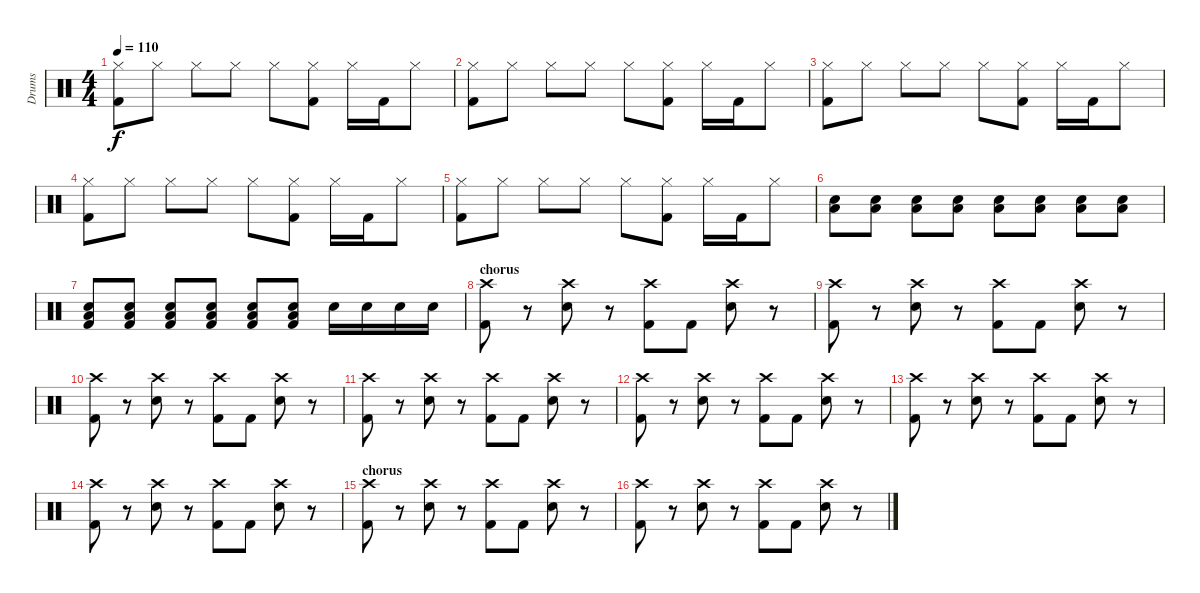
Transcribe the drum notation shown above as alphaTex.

\track ("Drums" "Drums") {instrument percussion}
\staff {score}
\articulation defaults
\ts (4 4)
\tempo 110
\clef neutral
\ks c
("Hi-Hat (closed)" "Kick (hit) 2").8{dy f} "Hi-Hat (closed)".8 "Hi-Hat (closed)".8 "Hi-Hat (closed)".8 "Hi-Hat (closed)".8 ("Hi-Hat (closed)" "Kick (hit) 2").8 "Hi-Hat (closed)".16 "Kick (hit) 2".16 "Hi-Hat (closed)".8 |
("Hi-Hat (closed)" "Kick (hit) 2").8 "Hi-Hat (closed)".8 "Hi-Hat (closed)".8 "Hi-Hat (closed)".8 "Hi-Hat (closed)".8 ("Hi-Hat (closed)" "Kick (hit) 2").8 "Hi-Hat (closed)".16 "Kick (hit) 2".16 "Hi-Hat (closed)".8 |
("Hi-Hat (closed)" "Kick (hit) 2").8 "Hi-Hat (closed)".8 "Hi-Hat (closed)".8 "Hi-Hat (closed)".8 "Hi-Hat (closed)".8 ("Hi-Hat (closed)" "Kick (hit) 2").8 "Hi-Hat (closed)".16 "Kick (hit) 2".16 "Hi-Hat (closed)".8 |
("Hi-Hat (closed)" "Kick (hit) 2").8 "Hi-Hat (closed)".8 "Hi-Hat (closed)".8 "Hi-Hat (closed)".8 "Hi-Hat (closed)".8 ("Hi-Hat (closed)" "Kick (hit) 2").8 "Hi-Hat (closed)".16 "Kick (hit) 2".16 "Hi-Hat (closed)".8 |
("Hi-Hat (closed)" "Kick (hit) 2").8 "Hi-Hat (closed)".8 "Hi-Hat (closed)".8 "Hi-Hat (closed)".8 "Hi-Hat (closed)".8 ("Hi-Hat (closed)" "Kick (hit) 2").8 "Hi-Hat (closed)".16 "Kick (hit) 2".16 "Hi-Hat (closed)".8 |
("Snare (hit) 2" "Low Tom (hit)").8 ("Snare (hit) 2" "Low Tom (hit)").8 ("Snare (hit) 2" "Low Tom (hit)").8 ("Snare (hit) 2" "Low Tom (hit)").8 ("Snare (hit) 2" "Low Tom (hit)").8 ("Snare (hit) 2" "Low Tom (hit)").8 ("Snare (hit) 2" "Low Tom (hit)").8 ("Snare (hit) 2" "Low Tom (hit)").8 |
("Snare (hit) 2" "Low Tom (hit)" "Kick (hit) 2").8 ("Snare (hit) 2" "Low Tom (hit)" "Kick (hit) 2").8 ("Snare (hit) 2" "Low Tom (hit)" "Kick (hit) 2").8 ("Snare (hit) 2" "Low Tom (hit)" "Kick (hit) 2").8 ("Snare (hit) 2" "Low Tom (hit)" "Kick (hit) 2").8 ("Snare (hit) 2" "Low Tom (hit)" "Kick (hit) 2").8 "Snare (hit) 2".16 "Snare (hit) 2".16 "Snare (hit) 2".16 "Snare (hit) 2".16 |
\section ("" "chorus")
("Crash high (hit)" "Kick (hit) 2").8 r.8 ("Crash high (hit)" "Snare (hit) 2").8 r.8 ("Crash high (hit)" "Kick (hit) 2").8 "Kick (hit) 2".8 ("Crash high (hit)" "Snare (hit) 2").8 r.8 |
("Crash high (hit)" "Kick (hit) 2").8 r.8 ("Crash high (hit)" "Snare (hit) 2").8 r.8 ("Crash high (hit)" "Kick (hit) 2").8 "Kick (hit) 2".8 ("Crash high (hit)" "Snare (hit) 2").8 r.8 |
("Crash high (hit)" "Kick (hit) 2").8 r.8 ("Crash high (hit)" "Snare (hit) 2").8 r.8 ("Crash high (hit)" "Kick (hit) 2").8 "Kick (hit) 2".8 ("Crash high (hit)" "Snare (hit) 2").8 r.8 |
("Crash high (hit)" "Kick (hit) 2").8 r.8 ("Crash high (hit)" "Snare (hit) 2").8 r.8 ("Crash high (hit)" "Kick (hit) 2").8 "Kick (hit) 2".8 ("Crash high (hit)" "Snare (hit) 2").8 r.8 |
("Crash high (hit)" "Kick (hit) 2").8 r.8 ("Crash high (hit)" "Snare (hit) 2").8 r.8 ("Crash high (hit)" "Kick (hit) 2").8 "Kick (hit) 2".8 ("Crash high (hit)" "Snare (hit) 2").8 r.8 |
("Crash high (hit)" "Kick (hit) 2").8 r.8 ("Crash high (hit)" "Snare (hit) 2").8 r.8 ("Crash high (hit)" "Kick (hit) 2").8 "Kick (hit) 2".8 ("Crash high (hit)" "Snare (hit) 2").8 r.8 |
("Crash high (hit)" "Kick (hit) 2").8 r.8 ("Crash high (hit)" "Snare (hit) 2").8 r.8 ("Crash high (hit)" "Kick (hit) 2").8 "Kick (hit) 2".8 ("Crash high (hit)" "Snare (hit) 2").8 r.8 |
\section ("" "chorus")
("Crash high (hit)" "Kick (hit) 2").8 r.8 ("Crash high (hit)" "Snare (hit) 2").8 r.8 ("Crash high (hit)" "Kick (hit) 2").8 "Kick (hit) 2".8 ("Crash high (hit)" "Snare (hit) 2").8 r.8 |
("Crash high (hit)" "Kick (hit) 2").8 r.8 ("Crash high (hit)" "Snare (hit) 2").8 r.8 ("Crash high (hit)" "Kick (hit) 2").8 "Kick (hit) 2".8 ("Crash high (hit)" "Snare (hit) 2").8 r.8
